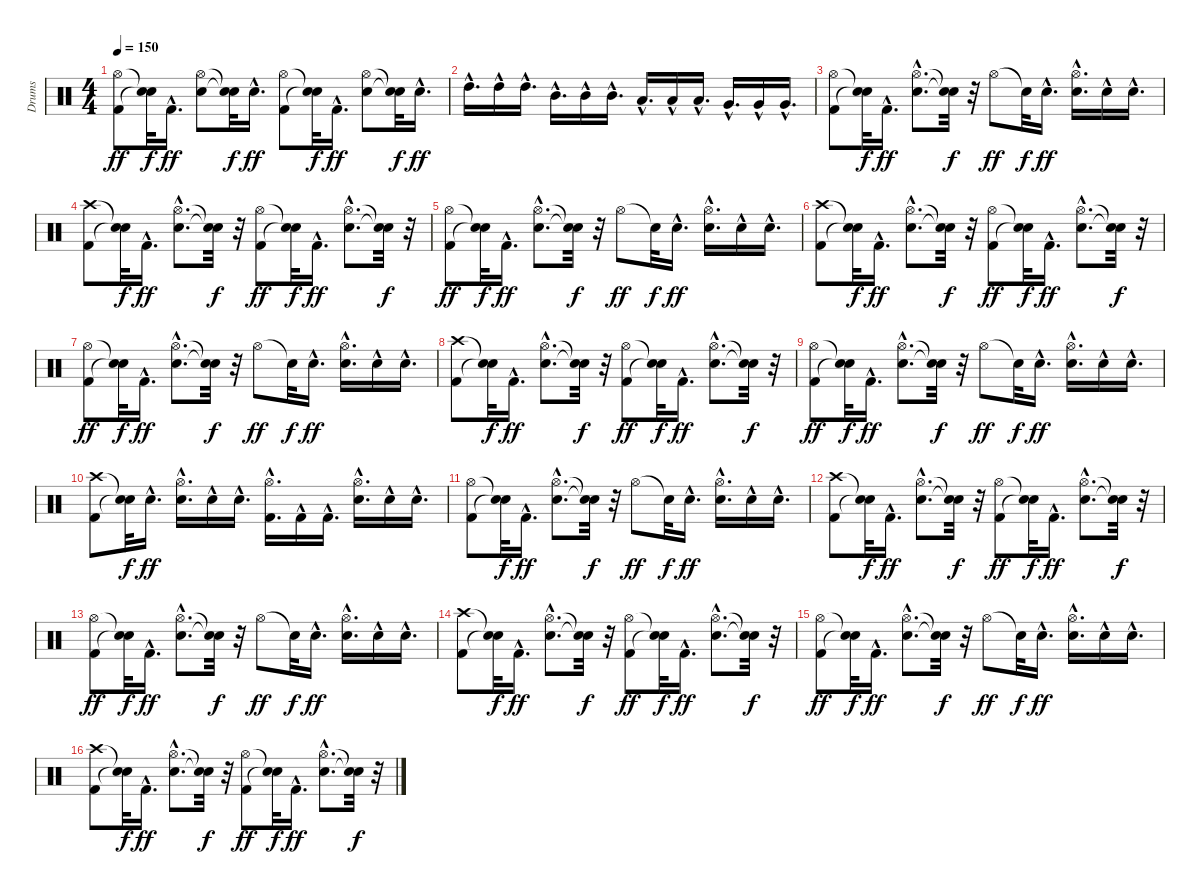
\track ("Drums" "Drums") {instrument percussion}
\staff {score}
\articulation defaults
\ts (4 4)
\tempo 150
\clef neutral
\ks c
("Kick (hit) 2" "Hi-Hat (open)").8{dy ff} ("Snare (hit)"{t} "Snare (hit)"{t}).32{dy f} "Kick (hit) 2"{hac}.16{d dy ff} ("Snare (hit) 2" "Hi-Hat (open)").8 ("Snare (hit)"{t} "Snare (hit)"{t}).32{dy f} "Snare (hit) 2"{hac}.16{d dy ff} ("Kick (hit) 2" "Hi-Hat (open)").8 ("Snare (hit)"{t} "Snare (hit)"{t}).32{dy f} "Kick (hit) 2"{hac}.16{d dy ff} ("Snare (hit) 2" "Hi-Hat (open)").8 ("Snare (hit)"{t} "Snare (hit)"{t}).32{dy f} "Snare (hit) 2"{hac}.16{d dy ff} |
"High Tom (hit)"{hac}.16{d} "High Tom (hit)"{hac}.16 "High Tom (hit)"{hac}.16{d} "Mid Tom (hit)"{hac}.16{d} "Mid Tom (hit)"{hac}.16 "Mid Tom (hit)"{hac}.16{d} "Low Tom (hit)"{hac}.16{d} "Low Tom (hit)"{hac}.16 "Low Tom (hit)"{hac}.16{d} "Very Low Tom (hit)"{hac}.16{d} "Very Low Tom (hit)"{hac}.16 "Very Low Tom (hit)"{hac}.16{d} |
("Kick (hit) 2" "Hi-Hat (open)").8 ("Snare (hit)"{t} "Snare (hit)"{t}).32{dy f} "Kick (hit) 2"{hac}.16{d dy ff} ("Snare (hit) 2"{hac} "Hi-Hat (open)"{hac}).8{d} ("Snare (hit)"{t} "Snare (hit)"{t}).32{dy f} r.32 "Hi-Hat (open)".8{dy ff} "Snare (hit)"{t}.32{dy f} "Snare (hit) 2"{hac}.16{d dy ff} ("Snare (hit) 2"{hac} "Hi-Hat (open)"{hac}).16{d} "Snare (hit) 2"{hac}.16 "Snare (hit) 2"{hac}.16{d} |
("Kick (hit) 2" "Crash high (hit)").8 ("Snare (hit)"{t} "Snare (hit)"{t}).32{dy f} "Kick (hit) 2"{hac}.16{d dy ff} ("Snare (hit) 2"{hac} "Hi-Hat (open)"{hac}).8{d} ("Snare (hit)"{t} "Snare (hit)"{t}).32{dy f} r.32 ("Kick (hit) 2" "Hi-Hat (open)").8{dy ff} ("Snare (hit)"{t} "Snare (hit)"{t}).32{dy f} "Kick (hit) 2"{hac}.16{d dy ff} ("Snare (hit) 2"{hac} "Hi-Hat (open)"{hac}).8{d} ("Snare (hit)"{t} "Snare (hit)"{t}).32{dy f} r.32 |
("Kick (hit) 2" "Hi-Hat (open)").8{dy ff} ("Snare (hit)"{t} "Snare (hit)"{t}).32{dy f} "Kick (hit) 2"{hac}.16{d dy ff} ("Snare (hit) 2"{hac} "Hi-Hat (open)"{hac}).8{d} ("Snare (hit)"{t} "Snare (hit)"{t}).32{dy f} r.32 "Hi-Hat (open)".8{dy ff} "Snare (hit)"{t}.32{dy f} "Snare (hit) 2"{hac}.16{d dy ff} ("Snare (hit) 2"{hac} "Hi-Hat (open)"{hac}).16{d} "Snare (hit) 2"{hac}.16 "Snare (hit) 2"{hac}.16{d} |
("Kick (hit) 2" "Crash high (hit)").8 ("Snare (hit)"{t} "Snare (hit)"{t}).32{dy f} "Kick (hit) 2"{hac}.16{d dy ff} ("Snare (hit) 2"{hac} "Hi-Hat (open)"{hac}).8{d} ("Snare (hit)"{t} "Snare (hit)"{t}).32{dy f} r.32 ("Kick (hit) 2" "Hi-Hat (open)").8{dy ff} ("Snare (hit)"{t} "Snare (hit)"{t}).32{dy f} "Kick (hit) 2"{hac}.16{d dy ff} ("Snare (hit) 2"{hac} "Hi-Hat (open)"{hac}).8{d} ("Snare (hit)"{t} "Snare (hit)"{t}).32{dy f} r.32 |
("Kick (hit) 2" "Hi-Hat (open)").8{dy ff} ("Snare (hit)"{t} "Snare (hit)"{t}).32{dy f} "Kick (hit) 2"{hac}.16{d dy ff} ("Snare (hit) 2"{hac} "Hi-Hat (open)"{hac}).8{d} ("Snare (hit)"{t} "Snare (hit)"{t}).32{dy f} r.32 "Hi-Hat (open)".8{dy ff} "Snare (hit)"{t}.32{dy f} "Snare (hit) 2"{hac}.16{d dy ff} ("Snare (hit) 2"{hac} "Hi-Hat (open)"{hac}).16{d} "Snare (hit) 2"{hac}.16 "Snare (hit) 2"{hac}.16{d} |
("Kick (hit) 2" "Crash high (hit)").8 ("Snare (hit)"{t} "Snare (hit)"{t}).32{dy f} "Kick (hit) 2"{hac}.16{d dy ff} ("Snare (hit) 2"{hac} "Hi-Hat (open)"{hac}).8{d} ("Snare (hit)"{t} "Snare (hit)"{t}).32{dy f} r.32 ("Kick (hit) 2" "Hi-Hat (open)").8{dy ff} ("Snare (hit)"{t} "Snare (hit)"{t}).32{dy f} "Kick (hit) 2"{hac}.16{d dy ff} ("Snare (hit) 2"{hac} "Hi-Hat (open)"{hac}).8{d} ("Snare (hit)"{t} "Snare (hit)"{t}).32{dy f} r.32 |
("Kick (hit) 2" "Hi-Hat (open)").8{dy ff} ("Snare (hit)"{t} "Snare (hit)"{t}).32{dy f} "Kick (hit) 2"{hac}.16{d dy ff} ("Snare (hit) 2"{hac} "Hi-Hat (open)"{hac}).8{d} ("Snare (hit)"{t} "Snare (hit)"{t}).32{dy f} r.32 "Hi-Hat (open)".8{dy ff} "Snare (hit)"{t}.32{dy f} "Snare (hit) 2"{hac}.16{d dy ff} ("Snare (hit) 2"{hac} "Hi-Hat (open)"{hac}).16{d} "Snare (hit) 2"{hac}.16 "Snare (hit) 2"{hac}.16{d} |
("Kick (hit) 2" "Crash high (hit)").8 ("Snare (hit)"{t} "Snare (hit)"{t}).32{dy f} "Snare (hit) 2"{hac}.16{d dy ff} ("Snare (hit) 2"{hac} "Hi-Hat (open)"{hac}).16{d} "Snare (hit) 2"{hac}.16 "Snare (hit) 2"{hac}.16{d} ("Kick (hit) 2"{hac} "Hi-Hat (open)"{hac}).16{d} "Kick (hit) 2"{hac}.16 "Kick (hit) 2"{hac}.16{d} ("Snare (hit) 2"{hac} "Hi-Hat (open)"{hac}).16{d} "Snare (hit) 2"{hac}.16 "Snare (hit) 2"{hac}.16{d} |
("Kick (hit) 2" "Hi-Hat (open)").8 ("Snare (hit)"{t} "Snare (hit)"{t}).32{dy f} "Kick (hit) 2"{hac}.16{d dy ff} ("Snare (hit) 2"{hac} "Hi-Hat (open)"{hac}).8{d} ("Snare (hit)"{t} "Snare (hit)"{t}).32{dy f} r.32 "Hi-Hat (open)".8{dy ff} "Snare (hit)"{t}.32{dy f} "Snare (hit) 2"{hac}.16{d dy ff} ("Snare (hit) 2"{hac} "Hi-Hat (open)"{hac}).16{d} "Snare (hit) 2"{hac}.16 "Snare (hit) 2"{hac}.16{d} |
("Kick (hit) 2" "Crash high (hit)").8 ("Snare (hit)"{t} "Snare (hit)"{t}).32{dy f} "Kick (hit) 2"{hac}.16{d dy ff} ("Snare (hit) 2"{hac} "Hi-Hat (open)"{hac}).8{d} ("Snare (hit)"{t} "Snare (hit)"{t}).32{dy f} r.32 ("Kick (hit) 2" "Hi-Hat (open)").8{dy ff} ("Snare (hit)"{t} "Snare (hit)"{t}).32{dy f} "Kick (hit) 2"{hac}.16{d dy ff} ("Snare (hit) 2"{hac} "Hi-Hat (open)"{hac}).8{d} ("Snare (hit)"{t} "Snare (hit)"{t}).32{dy f} r.32 |
("Kick (hit) 2" "Hi-Hat (open)").8{dy ff} ("Snare (hit)"{t} "Snare (hit)"{t}).32{dy f} "Kick (hit) 2"{hac}.16{d dy ff} ("Snare (hit) 2"{hac} "Hi-Hat (open)"{hac}).8{d} ("Snare (hit)"{t} "Snare (hit)"{t}).32{dy f} r.32 "Hi-Hat (open)".8{dy ff} "Snare (hit)"{t}.32{dy f} "Snare (hit) 2"{hac}.16{d dy ff} ("Snare (hit) 2"{hac} "Hi-Hat (open)"{hac}).16{d} "Snare (hit) 2"{hac}.16 "Snare (hit) 2"{hac}.16{d} |
("Kick (hit) 2" "Crash high (hit)").8 ("Snare (hit)"{t} "Snare (hit)"{t}).32{dy f} "Kick (hit) 2"{hac}.16{d dy ff} ("Snare (hit) 2"{hac} "Hi-Hat (open)"{hac}).8{d} ("Snare (hit)"{t} "Snare (hit)"{t}).32{dy f} r.32 ("Kick (hit) 2" "Hi-Hat (open)").8{dy ff} ("Snare (hit)"{t} "Snare (hit)"{t}).32{dy f} "Kick (hit) 2"{hac}.16{d dy ff} ("Snare (hit) 2"{hac} "Hi-Hat (open)"{hac}).8{d} ("Snare (hit)"{t} "Snare (hit)"{t}).32{dy f} r.32 |
("Kick (hit) 2" "Hi-Hat (open)").8{dy ff} ("Snare (hit)"{t} "Snare (hit)"{t}).32{dy f} "Kick (hit) 2"{hac}.16{d dy ff} ("Snare (hit) 2"{hac} "Hi-Hat (open)"{hac}).8{d} ("Snare (hit)"{t} "Snare (hit)"{t}).32{dy f} r.32 "Hi-Hat (open)".8{dy ff} "Snare (hit)"{t}.32{dy f} "Snare (hit) 2"{hac}.16{d dy ff} ("Snare (hit) 2"{hac} "Hi-Hat (open)"{hac}).16{d} "Snare (hit) 2"{hac}.16 "Snare (hit) 2"{hac}.16{d} |
("Kick (hit) 2" "Crash high (hit)").8 ("Snare (hit)"{t} "Snare (hit)"{t}).32{dy f} "Kick (hit) 2"{hac}.16{d dy ff} ("Snare (hit) 2"{hac} "Hi-Hat (open)"{hac}).8{d} ("Snare (hit)"{t} "Snare (hit)"{t}).32{dy f} r.32 ("Kick (hit) 2" "Hi-Hat (open)").8{dy ff} ("Snare (hit)"{t} "Snare (hit)"{t}).32{dy f} "Kick (hit) 2"{hac}.16{d dy ff} ("Snare (hit) 2"{hac} "Hi-Hat (open)"{hac}).8{d} ("Snare (hit)"{t} "Snare (hit)"{t}).32{dy f} r.32
